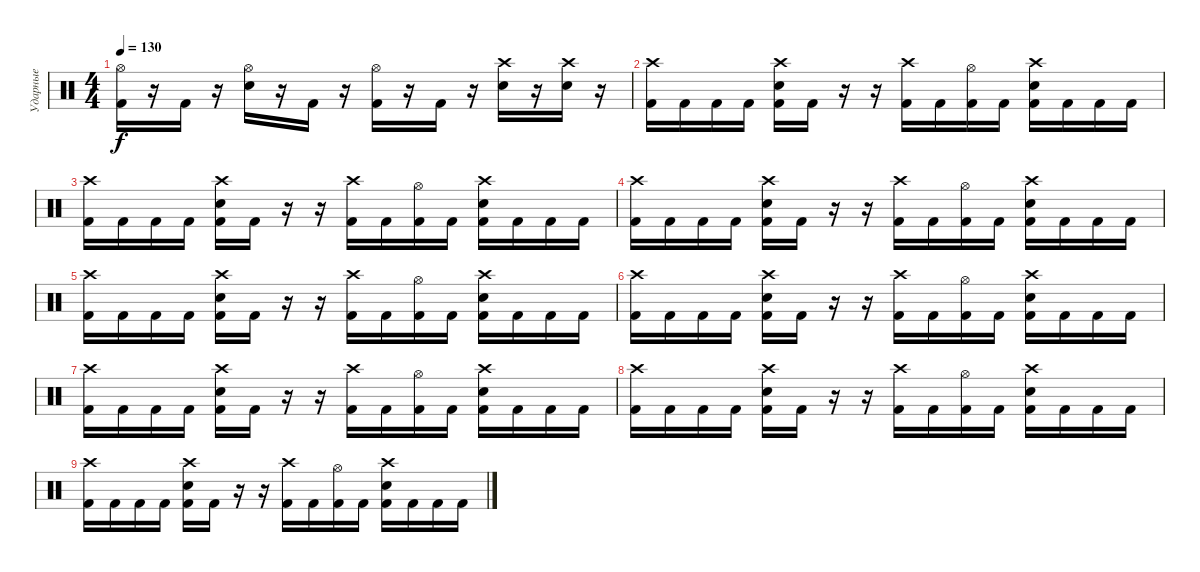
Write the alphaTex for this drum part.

\track ("Ударные" "Ударные") {instrument percussion}
\staff {score}
\articulation defaults
\ts (4 4)
\tempo 130
\clef neutral
\ks c
("Hi-Hat (open)" "Kick (hit) 2").16{dy f} r.16 "Kick (hit) 2".16 r.16 ("Hi-Hat (open)" "Electric Snare (hit)").16 r.16 "Kick (hit) 2".16 r.16 ("Hi-Hat (open)" "Kick (hit) 2").16 r.16 "Kick (hit) 2".16 r.16 ("Crash high (hit)" "Electric Snare (hit)").16 r.16 ("Crash high (hit)" "Electric Snare (hit)").16 r.16 |
("Crash high (hit)" "Kick (hit) 2").16 "Kick (hit) 2".16 "Kick (hit) 2".16 "Kick (hit) 2".16 ("Crash high (hit)" "Electric Snare (hit)" "Kick (hit) 2").16 "Kick (hit) 2".16 r.16 r.16 ("Crash high (hit)" "Kick (hit) 2").16 "Kick (hit) 2".16 ("Hi-Hat (open)" "Kick (hit) 2").16 "Kick (hit) 2".16 ("Crash high (hit)" "Electric Snare (hit)" "Kick (hit) 2").16 "Kick (hit) 2".16 "Kick (hit) 2".16 "Kick (hit) 2".16 |
("Crash high (hit)" "Kick (hit) 2").16 "Kick (hit) 2".16 "Kick (hit) 2".16 "Kick (hit) 2".16 ("Crash high (hit)" "Electric Snare (hit)" "Kick (hit) 2").16 "Kick (hit) 2".16 r.16 r.16 ("Crash high (hit)" "Kick (hit) 2").16 "Kick (hit) 2".16 ("Hi-Hat (open)" "Kick (hit) 2").16 "Kick (hit) 2".16 ("Crash high (hit)" "Electric Snare (hit)" "Kick (hit) 2").16 "Kick (hit) 2".16 "Kick (hit) 2".16 "Kick (hit) 2".16 |
("Crash high (hit)" "Kick (hit) 2").16 "Kick (hit) 2".16 "Kick (hit) 2".16 "Kick (hit) 2".16 ("Crash high (hit)" "Electric Snare (hit)" "Kick (hit) 2").16 "Kick (hit) 2".16 r.16 r.16 ("Crash high (hit)" "Kick (hit) 2").16 "Kick (hit) 2".16 ("Hi-Hat (open)" "Kick (hit) 2").16 "Kick (hit) 2".16 ("Crash high (hit)" "Electric Snare (hit)" "Kick (hit) 2").16 "Kick (hit) 2".16 "Kick (hit) 2".16 "Kick (hit) 2".16 |
("Crash high (hit)" "Kick (hit) 2").16 "Kick (hit) 2".16 "Kick (hit) 2".16 "Kick (hit) 2".16 ("Crash high (hit)" "Electric Snare (hit)" "Kick (hit) 2").16 "Kick (hit) 2".16 r.16 r.16 ("Crash high (hit)" "Kick (hit) 2").16 "Kick (hit) 2".16 ("Hi-Hat (open)" "Kick (hit) 2").16 "Kick (hit) 2".16 ("Crash high (hit)" "Electric Snare (hit)" "Kick (hit) 2").16 "Kick (hit) 2".16 "Kick (hit) 2".16 "Kick (hit) 2".16 |
("Crash high (hit)" "Kick (hit) 2").16 "Kick (hit) 2".16 "Kick (hit) 2".16 "Kick (hit) 2".16 ("Crash high (hit)" "Electric Snare (hit)" "Kick (hit) 2").16 "Kick (hit) 2".16 r.16 r.16 ("Crash high (hit)" "Kick (hit) 2").16 "Kick (hit) 2".16 ("Hi-Hat (open)" "Kick (hit) 2").16 "Kick (hit) 2".16 ("Crash high (hit)" "Electric Snare (hit)" "Kick (hit) 2").16 "Kick (hit) 2".16 "Kick (hit) 2".16 "Kick (hit) 2".16 |
("Crash high (hit)" "Kick (hit) 2").16 "Kick (hit) 2".16 "Kick (hit) 2".16 "Kick (hit) 2".16 ("Crash high (hit)" "Electric Snare (hit)" "Kick (hit) 2").16 "Kick (hit) 2".16 r.16 r.16 ("Crash high (hit)" "Kick (hit) 2").16 "Kick (hit) 2".16 ("Hi-Hat (open)" "Kick (hit) 2").16 "Kick (hit) 2".16 ("Crash high (hit)" "Electric Snare (hit)" "Kick (hit) 2").16 "Kick (hit) 2".16 "Kick (hit) 2".16 "Kick (hit) 2".16 |
("Crash high (hit)" "Kick (hit) 2").16 "Kick (hit) 2".16 "Kick (hit) 2".16 "Kick (hit) 2".16 ("Crash high (hit)" "Electric Snare (hit)" "Kick (hit) 2").16 "Kick (hit) 2".16 r.16 r.16 ("Crash high (hit)" "Kick (hit) 2").16 "Kick (hit) 2".16 ("Hi-Hat (open)" "Kick (hit) 2").16 "Kick (hit) 2".16 ("Crash high (hit)" "Electric Snare (hit)" "Kick (hit) 2").16 "Kick (hit) 2".16 "Kick (hit) 2".16 "Kick (hit) 2".16 |
("Crash high (hit)" "Kick (hit) 2").16 "Kick (hit) 2".16 "Kick (hit) 2".16 "Kick (hit) 2".16 ("Crash high (hit)" "Electric Snare (hit)" "Kick (hit) 2").16 "Kick (hit) 2".16 r.16 r.16 ("Crash high (hit)" "Kick (hit) 2").16 "Kick (hit) 2".16 ("Hi-Hat (open)" "Kick (hit) 2").16 "Kick (hit) 2".16 ("Crash high (hit)" "Electric Snare (hit)" "Kick (hit) 2").16 "Kick (hit) 2".16 "Kick (hit) 2".16 "Kick (hit) 2".16
